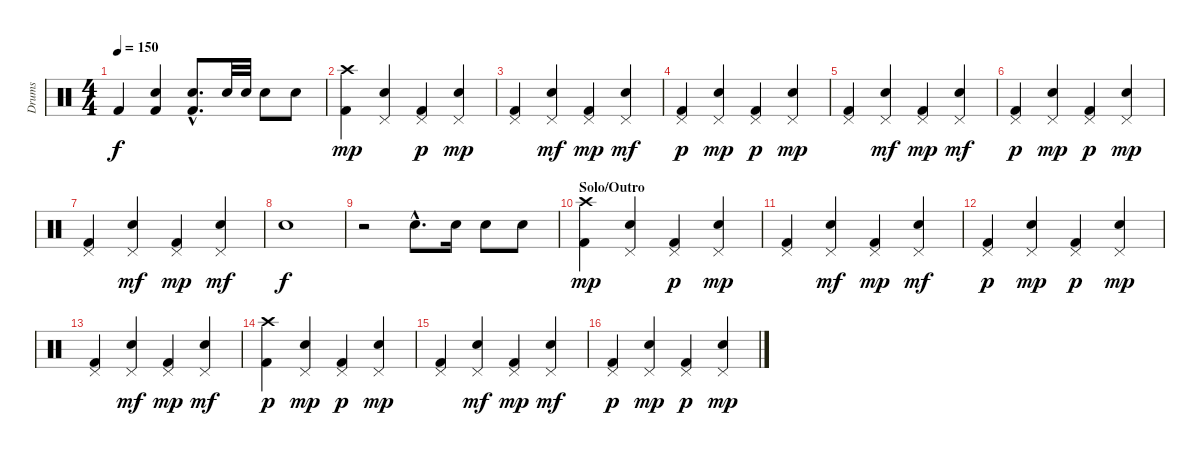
\track ("Drums" "Drums") {instrument percussion}
\staff {score}
\articulation defaults
\ts (4 4)
\tempo 150
\clef neutral
\ks c "Kick (hit) 2".4{dy f}
("Electric Snare (hit)" "Kick (hit) 2").4 ("Electric Snare (hit)"{hac} "Kick (hit) 2"{hac}).8{d} "Electric Snare (hit)".32 "Electric Snare (hit)".32 "Electric Snare (hit)".8 "Electric Snare (hit)".8 |
("Crash high (hit)" "Kick (hit) 2").4{dy mp} ("Pedal Hi-Hat (hit)" "Electric Snare (hit)").4 ("Pedal Hi-Hat (hit)" "Kick (hit) 2").4{dy p} ("Pedal Hi-Hat (hit)" "Electric Snare (hit)").4{dy mp} |
("Pedal Hi-Hat (hit)" "Kick (hit) 2").4 ("Pedal Hi-Hat (hit)" "Electric Snare (hit)").4{dy mf} ("Pedal Hi-Hat (hit)" "Kick (hit) 2").4{dy mp} ("Pedal Hi-Hat (hit)" "Electric Snare (hit)").4{dy mf} |
("Pedal Hi-Hat (hit)" "Kick (hit) 2").4{dy p} ("Pedal Hi-Hat (hit)" "Electric Snare (hit)").4{dy mp} ("Pedal Hi-Hat (hit)" "Kick (hit) 2").4{dy p} ("Pedal Hi-Hat (hit)" "Electric Snare (hit)").4{dy mp} |
("Pedal Hi-Hat (hit)" "Kick (hit) 2").4 ("Pedal Hi-Hat (hit)" "Electric Snare (hit)").4{dy mf} ("Pedal Hi-Hat (hit)" "Kick (hit) 2").4{dy mp} ("Pedal Hi-Hat (hit)" "Electric Snare (hit)").4{dy mf} |
("Pedal Hi-Hat (hit)" "Kick (hit) 2").4{dy p} ("Pedal Hi-Hat (hit)" "Electric Snare (hit)").4{dy mp} ("Pedal Hi-Hat (hit)" "Kick (hit) 2").4{dy p} ("Pedal Hi-Hat (hit)" "Electric Snare (hit)").4{dy mp} |
("Pedal Hi-Hat (hit)" "Kick (hit) 2").4 ("Pedal Hi-Hat (hit)" "Electric Snare (hit)").4{dy mf} ("Pedal Hi-Hat (hit)" "Kick (hit) 2").4{dy mp} ("Pedal Hi-Hat (hit)" "Electric Snare (hit)").4{dy mf} |
"Electric Snare (hit)".1{dy f} |
r.2 "Electric Snare (hit)"{hac}.8{d} "Electric Snare (hit)".16 "Electric Snare (hit)".8 "Electric Snare (hit)".8 |
\section ("" "Solo/Outro")
("Crash high (hit)" "Kick (hit) 2").4{dy mp} ("Pedal Hi-Hat (hit)" "Electric Snare (hit)").4 ("Pedal Hi-Hat (hit)" "Kick (hit) 2").4{dy p} ("Pedal Hi-Hat (hit)" "Electric Snare (hit)").4{dy mp} |
("Pedal Hi-Hat (hit)" "Kick (hit) 2").4 ("Pedal Hi-Hat (hit)" "Electric Snare (hit)").4{dy mf} ("Pedal Hi-Hat (hit)" "Kick (hit) 2").4{dy mp} ("Pedal Hi-Hat (hit)" "Electric Snare (hit)").4{dy mf} |
("Pedal Hi-Hat (hit)" "Kick (hit) 2").4{dy p} ("Pedal Hi-Hat (hit)" "Electric Snare (hit)").4{dy mp} ("Pedal Hi-Hat (hit)" "Kick (hit) 2").4{dy p} ("Pedal Hi-Hat (hit)" "Electric Snare (hit)").4{dy mp} |
("Pedal Hi-Hat (hit)" "Kick (hit) 2").4 ("Pedal Hi-Hat (hit)" "Electric Snare (hit)").4{dy mf} ("Pedal Hi-Hat (hit)" "Kick (hit) 2").4{dy mp} ("Pedal Hi-Hat (hit)" "Electric Snare (hit)").4{dy mf} |
("Crash high (hit)" "Kick (hit) 2").4{dy p} ("Pedal Hi-Hat (hit)" "Electric Snare (hit)").4{dy mp} ("Pedal Hi-Hat (hit)" "Kick (hit) 2").4{dy p} ("Pedal Hi-Hat (hit)" "Electric Snare (hit)").4{dy mp} |
("Pedal Hi-Hat (hit)" "Kick (hit) 2").4 ("Pedal Hi-Hat (hit)" "Electric Snare (hit)").4{dy mf} ("Pedal Hi-Hat (hit)" "Kick (hit) 2").4{dy mp} ("Pedal Hi-Hat (hit)" "Electric Snare (hit)").4{dy mf} |
("Pedal Hi-Hat (hit)" "Kick (hit) 2").4{dy p} ("Pedal Hi-Hat (hit)" "Electric Snare (hit)").4{dy mp} ("Pedal Hi-Hat (hit)" "Kick (hit) 2").4{dy p} ("Pedal Hi-Hat (hit)" "Electric Snare (hit)").4{dy mp}
